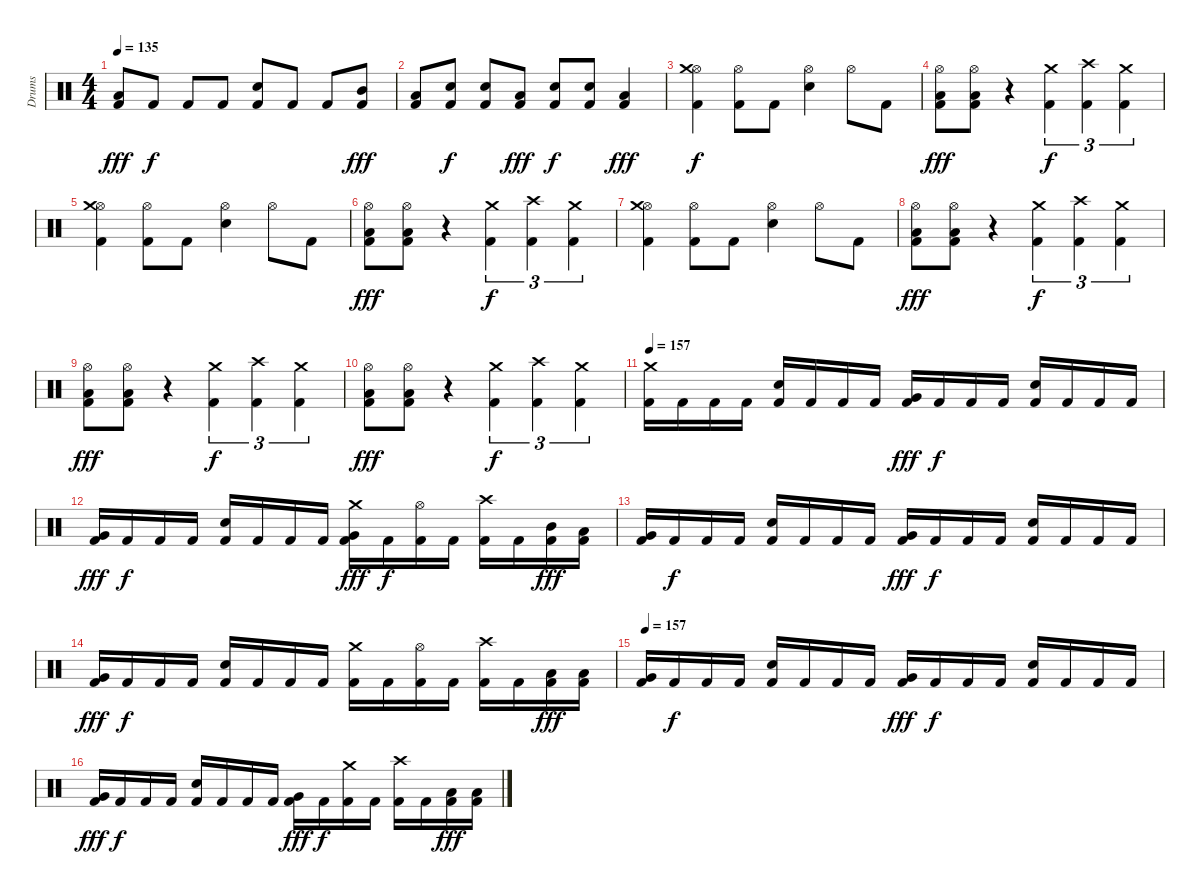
\track ("Drums" "Drums") {instrument percussion}
\staff {score}
\articulation defaults
\ts (4 4)
\tempo 135
\clef neutral
\ks c
("Kick (hit) 2" "Low Floor Tom (hit)").8{dy fff} "Kick (hit) 2".8{dy f} "Kick (hit) 2".8 "Kick (hit) 2".8 ("Kick (hit) 2" "Electric Snare (hit)").8 "Kick (hit) 2".8 "Kick (hit) 2".8 ("Kick (hit) 2" "Mid Tom (hit)").8{dy fff} |
("Kick (hit) 2" "Low Tom (hit)").8 ("Kick (hit) 2" "Electric Snare (hit)").8{dy f} ("Kick (hit) 2" "Electric Snare (hit)").8 ("Kick (hit) 2" "Low Tom (hit)").8{dy fff} ("Kick (hit) 2" "Electric Snare (hit)").8{dy f} ("Kick (hit) 2" "Electric Snare (hit)").8 ("Kick (hit) 2" "Low Tom (hit)").4{dy fff} |
("Kick (hit) 2" "Hi-Hat (open)" "Crash medium (hit)").4{dy f} ("Kick (hit) 2" "Hi-Hat (open)").8 "Kick (hit) 2".8 ("Electric Snare (hit)" "Hi-Hat (open)").4 "Hi-Hat (open)".8 "Kick (hit) 2".8 |
("Kick (hit) 2" "Low Tom (hit)" "Hi-Hat (open)").8{dy fff} ("Kick (hit) 2" "Low Tom (hit)" "Hi-Hat (open)").8 r.4 ("Kick (hit) 2" "Crash medium (hit)").4{tu (3 2) dy f} ("Kick (hit) 2" "Crash high (hit)").4{tu (3 2)} ("Kick (hit) 2" "Crash medium (hit)").4{tu (3 2)} |
("Kick (hit) 2" "Hi-Hat (open)" "Crash medium (hit)").4 ("Kick (hit) 2" "Hi-Hat (open)").8 "Kick (hit) 2".8 ("Electric Snare (hit)" "Hi-Hat (open)").4 "Hi-Hat (open)".8 "Kick (hit) 2".8 |
("Kick (hit) 2" "Low Tom (hit)" "Hi-Hat (open)").8{dy fff} ("Kick (hit) 2" "Low Tom (hit)" "Hi-Hat (open)").8 r.4 ("Kick (hit) 2" "Crash medium (hit)").4{tu (3 2) dy f} ("Kick (hit) 2" "Crash high (hit)").4{tu (3 2)} ("Kick (hit) 2" "Crash medium (hit)").4{tu (3 2)} |
("Kick (hit) 2" "Hi-Hat (open)" "Crash medium (hit)").4 ("Kick (hit) 2" "Hi-Hat (open)").8 "Kick (hit) 2".8 ("Electric Snare (hit)" "Hi-Hat (open)").4 "Hi-Hat (open)".8 "Kick (hit) 2".8 |
("Kick (hit) 2" "Low Tom (hit)" "Hi-Hat (open)").8{dy fff} ("Kick (hit) 2" "Low Tom (hit)" "Hi-Hat (open)").8 r.4 ("Kick (hit) 2" "Crash medium (hit)").4{tu (3 2) dy f} ("Kick (hit) 2" "Crash high (hit)").4{tu (3 2)} ("Kick (hit) 2" "Crash medium (hit)").4{tu (3 2)} |
("Kick (hit) 2" "Low Tom (hit)" "Hi-Hat (open)").8{dy fff} ("Kick (hit) 2" "Low Tom (hit)" "Hi-Hat (open)").8 r.4 ("Kick (hit) 2" "Crash medium (hit)").4{tu (3 2) dy f} ("Kick (hit) 2" "Crash high (hit)").4{tu (3 2)} ("Kick (hit) 2" "Crash medium (hit)").4{tu (3 2)} |
("Kick (hit) 2" "Low Tom (hit)" "Hi-Hat (open)").8{dy fff} ("Kick (hit) 2" "Low Tom (hit)" "Hi-Hat (open)").8 r.4 ("Kick (hit) 2" "Crash medium (hit)").4{tu (3 2) dy f} ("Kick (hit) 2" "Crash high (hit)").4{tu (3 2)} ("Kick (hit) 2" "Crash medium (hit)").4{tu (3 2)} |
\tempo 157
("Kick (hit) 2" "Crash medium (hit)").16 "Kick (hit) 2".16 "Kick (hit) 2".16 "Kick (hit) 2".16 ("Kick (hit) 2" "Electric Snare (hit)").16 "Kick (hit) 2".16 "Kick (hit) 2".16 "Kick (hit) 2".16 ("Kick (hit) 2" "Very Low Tom (hit)").16{dy fff} "Kick (hit) 2".16{dy f} "Kick (hit) 2".16 "Kick (hit) 2".16 ("Kick (hit) 2" "Electric Snare (hit)").16 "Kick (hit) 2".16 "Kick (hit) 2".16 "Kick (hit) 2".16 |
("Kick (hit) 2" "Very Low Tom (hit)").16{dy fff} "Kick (hit) 2".16{dy f} "Kick (hit) 2".16 "Kick (hit) 2".16 ("Kick (hit) 2" "Electric Snare (hit)").16 "Kick (hit) 2".16 "Kick (hit) 2".16 "Kick (hit) 2".16 ("Kick (hit) 2" "Very Low Tom (hit)" "Crash medium (hit)").16{dy fff} "Kick (hit) 2".16{dy f} ("Kick (hit) 2" "Hi-Hat (open)").16 "Kick (hit) 2".16 ("Kick (hit) 2" "Crash high (hit)").16 "Kick (hit) 2".16 ("Kick (hit) 2" "Mid Tom (hit)").16{dy fff} ("Kick (hit) 2" "Low Tom (hit)").16 |
("Kick (hit) 2" "Very Low Tom (hit)").16 "Kick (hit) 2".16{dy f} "Kick (hit) 2".16 "Kick (hit) 2".16 ("Kick (hit) 2" "Electric Snare (hit)").16 "Kick (hit) 2".16 "Kick (hit) 2".16 "Kick (hit) 2".16 ("Kick (hit) 2" "Very Low Tom (hit)").16{dy fff} "Kick (hit) 2".16{dy f} "Kick (hit) 2".16 "Kick (hit) 2".16 ("Kick (hit) 2" "Electric Snare (hit)").16 "Kick (hit) 2".16 "Kick (hit) 2".16 "Kick (hit) 2".16 |
("Kick (hit) 2" "Very Low Tom (hit)").16{dy fff} "Kick (hit) 2".16{dy f} "Kick (hit) 2".16 "Kick (hit) 2".16 ("Kick (hit) 2" "Electric Snare (hit)").16 "Kick (hit) 2".16 "Kick (hit) 2".16 "Kick (hit) 2".16 ("Kick (hit) 2" "Crash medium (hit)").16 "Kick (hit) 2".16 ("Kick (hit) 2" "Hi-Hat (open)").16 "Kick (hit) 2".16 ("Kick (hit) 2" "Crash high (hit)").16 "Kick (hit) 2".16 ("Kick (hit) 2" "Low Tom (hit)").16{dy fff} ("Kick (hit) 2" "Low Tom (hit)").16 |
\tempo 157
("Kick (hit) 2" "Very Low Tom (hit)").16 "Kick (hit) 2".16{dy f} "Kick (hit) 2".16 "Kick (hit) 2".16 ("Kick (hit) 2" "Electric Snare (hit)").16 "Kick (hit) 2".16 "Kick (hit) 2".16 "Kick (hit) 2".16 ("Kick (hit) 2" "Very Low Tom (hit)").16{dy fff} "Kick (hit) 2".16{dy f} "Kick (hit) 2".16 "Kick (hit) 2".16 ("Kick (hit) 2" "Electric Snare (hit)").16 "Kick (hit) 2".16 "Kick (hit) 2".16 "Kick (hit) 2".16 |
("Kick (hit) 2" "Very Low Tom (hit)").16{dy fff} "Kick (hit) 2".16{dy f} "Kick (hit) 2".16 "Kick (hit) 2".16 ("Kick (hit) 2" "Electric Snare (hit)").16 "Kick (hit) 2".16 "Kick (hit) 2".16 "Kick (hit) 2".16 ("Kick (hit) 2" "Very Low Tom (hit)").16{dy fff} "Kick (hit) 2".16{dy f} ("Kick (hit) 2" "Crash medium (hit)").16 "Kick (hit) 2".16 ("Kick (hit) 2" "Crash high (hit)").16 "Kick (hit) 2".16 ("Kick (hit) 2" "Low Tom (hit)").16{dy fff} ("Kick (hit) 2" "Low Tom (hit)").16
